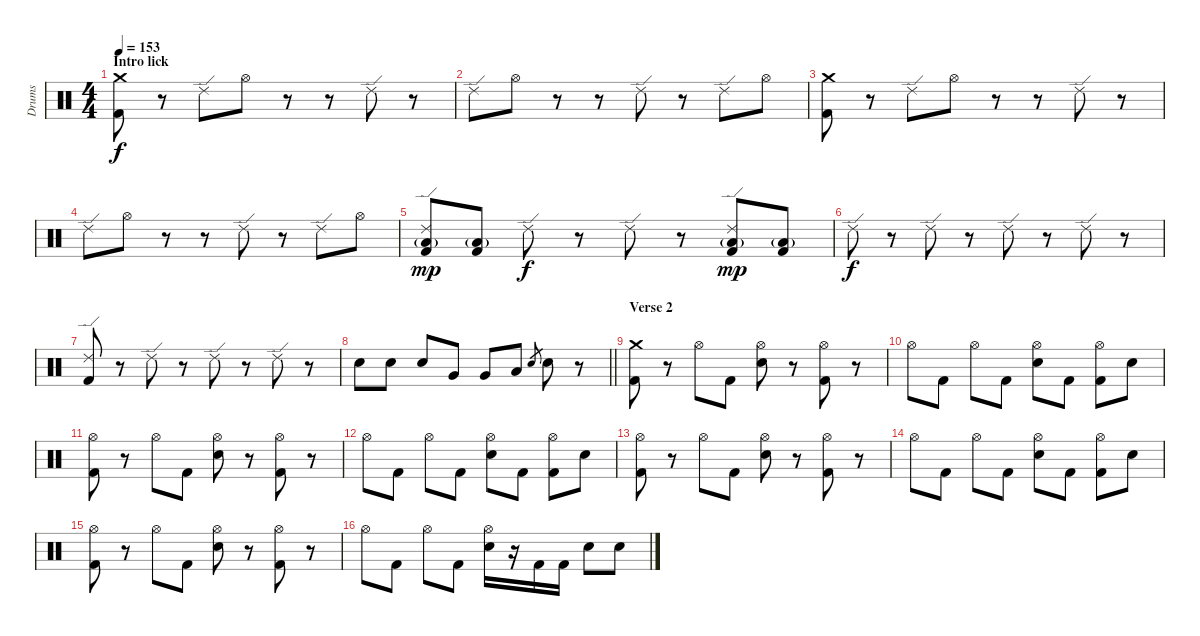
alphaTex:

\track ("Drums" "Drums") {instrument percussion}
\staff {score}
\articulation defaults
\ts (4 4)
\section ("" "Intro lick")
\tempo 153
\clef neutral
\ks c
("Crash medium (hit)" "Kick (hit) 2").8{dy f} r.8 "Ride (edge) 2".8 "Hi-Hat (open)".8 r.8 r.8 "Ride (edge) 2".8 r.8 |
"Ride (edge) 2".8 "Hi-Hat (open)".8 r.8 r.8 "Ride (edge) 2".8 r.8 "Ride (edge) 2".8 "Hi-Hat (open)".8 |
("Crash medium (hit)" "Kick (hit) 2").8 r.8 "Ride (edge) 2".8 "Hi-Hat (open)".8 r.8 r.8 "Ride (edge) 2".8 r.8 |
"Ride (edge) 2".8 "Hi-Hat (open)".8 r.8 r.8 "Ride (edge) 2".8 r.8 "Ride (edge) 2".8 "Hi-Hat (open)".8 |
("Ride (edge) 2" "Low Tom (hit)"{g} "Kick (hit) 2").8{dy mp} ("Low Tom (hit)"{g} "Kick (hit) 2").8 "Ride (edge) 2".8{dy f} r.8 "Ride (edge) 2".8 r.8 ("Ride (edge) 2" "Low Tom (hit)"{g} "Kick (hit) 2").8{dy mp} ("Low Tom (hit)"{g} "Kick (hit) 2").8 |
"Ride (edge) 2".8{dy f} r.8 "Ride (edge) 2".8 r.8 "Ride (edge) 2".8 r.8 "Ride (edge) 2".8 r.8 |
("Ride (edge) 2" "Kick (hit) 2").8 r.8 "Ride (edge) 2".8 r.8 "Ride (edge) 2".8 r.8 "Ride (edge) 2".8 r.8 |
\barLineRight lightlight "Electric Snare (hit)".8 "Electric Snare (hit)".8 "Electric Snare (hit)".8 "Very Low Tom (hit)".8 "Very Low Tom (hit)".8 "Low Floor Tom (hit)".8 "Electric Snare (hit)".8{gr} "Electric Snare (hit)".8
r.8 |
\section ("" "Verse 2")
("Crash medium (hit)" "Kick (hit) 2").8 r.8 "Hi-Hat (open)".8 "Kick (hit) 2".8 ("Hi-Hat (open)" "Electric Snare (hit)").8 r.8 ("Hi-Hat (open)" "Kick (hit) 2").8 r.8 |
"Hi-Hat (open)".8 "Kick (hit) 2".8 "Hi-Hat (open)".8 "Kick (hit) 2".8 ("Hi-Hat (open)" "Electric Snare (hit)").8 "Kick (hit) 2".8 ("Hi-Hat (open)" "Kick (hit) 2").8 "Electric Snare (hit)".8 |
("Hi-Hat (open)" "Kick (hit) 2").8 r.8 "Hi-Hat (open)".8 "Kick (hit) 2".8 ("Hi-Hat (open)" "Electric Snare (hit)").8 r.8 ("Hi-Hat (open)" "Kick (hit) 2").8 r.8 |
"Hi-Hat (open)".8 "Kick (hit) 2".8 "Hi-Hat (open)".8 "Kick (hit) 2".8 ("Hi-Hat (open)" "Electric Snare (hit)").8 "Kick (hit) 2".8 ("Hi-Hat (open)" "Kick (hit) 2").8 "Electric Snare (hit)".8 |
("Hi-Hat (open)" "Kick (hit) 2").8 r.8 "Hi-Hat (open)".8 "Kick (hit) 2".8 ("Hi-Hat (open)" "Electric Snare (hit)").8 r.8 ("Hi-Hat (open)" "Kick (hit) 2").8 r.8 |
"Hi-Hat (open)".8 "Kick (hit) 2".8 "Hi-Hat (open)".8 "Kick (hit) 2".8 ("Hi-Hat (open)" "Electric Snare (hit)").8 "Kick (hit) 2".8 ("Hi-Hat (open)" "Kick (hit) 2").8 "Electric Snare (hit)".8 |
("Hi-Hat (open)" "Kick (hit) 2").8 r.8 "Hi-Hat (open)".8 "Kick (hit) 2".8 ("Hi-Hat (open)" "Electric Snare (hit)").8 r.8 ("Hi-Hat (open)" "Kick (hit) 2").8 r.8 |
"Hi-Hat (open)".8 "Kick (hit) 2".8 "Hi-Hat (open)".8 "Kick (hit) 2".8 ("Hi-Hat (open)" "Electric Snare (hit)").16 r.16 "Kick (hit) 2".16 "Kick (hit) 2".16 "Electric Snare (hit)".8 "Electric Snare (hit)".8
